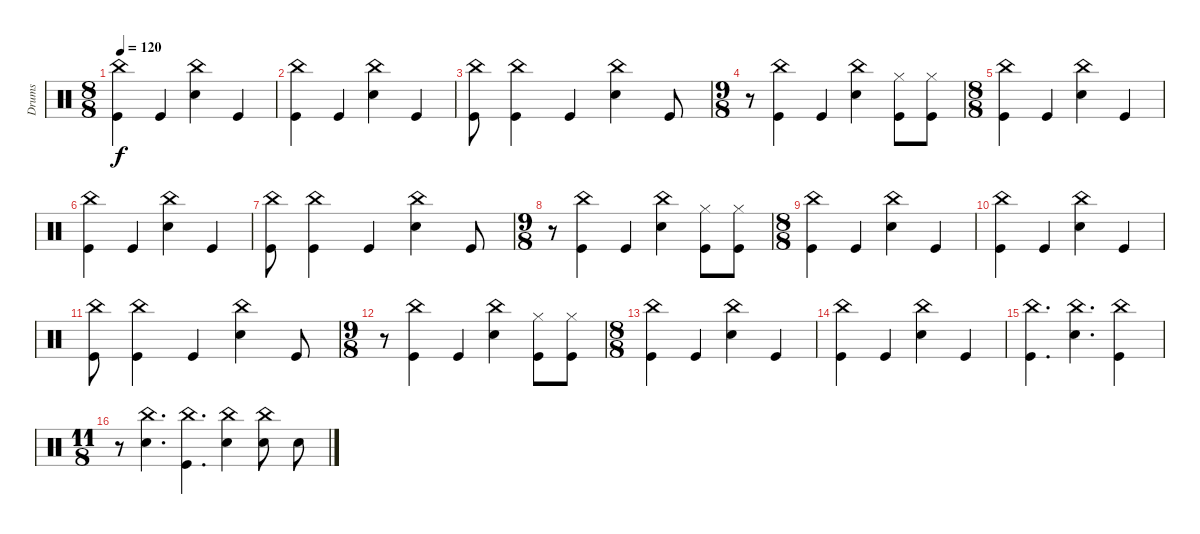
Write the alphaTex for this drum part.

\track ("Drums" "Drums") {instrument percussion}
\staff {score}
\articulation defaults
\ts (8 8)
\tempo 120
\clef neutral
\ks c
("China (hit)" "Kick (hit)").4{dy f} "Kick (hit)".4 ("China (hit)" "Electric Snare (hit)").4 "Kick (hit)".4 |
("China (hit)" "Kick (hit)").4 "Kick (hit)".4 ("China (hit)" "Electric Snare (hit)").4 "Kick (hit)".4 |
("China (hit)" "Kick (hit)").8 ("China (hit)" "Kick (hit)").4 "Kick (hit)".4 ("China (hit)" "Electric Snare (hit)").4 "Kick (hit)".8 |
\ts (9 8)
r.8 ("China (hit)" "Kick (hit)").4 "Kick (hit)".4 ("China (hit)" "Electric Snare (hit)").4 ("Hi-Hat (closed)" "Kick (hit)").8 ("Hi-Hat (closed)" "Kick (hit)").8 |
\ts (8 8)
("China (hit)" "Kick (hit)").4 "Kick (hit)".4 ("China (hit)" "Electric Snare (hit)").4 "Kick (hit)".4 |
("China (hit)" "Kick (hit)").4 "Kick (hit)".4 ("China (hit)" "Electric Snare (hit)").4 "Kick (hit)".4 |
("China (hit)" "Kick (hit)").8 ("China (hit)" "Kick (hit)").4 "Kick (hit)".4 ("China (hit)" "Electric Snare (hit)").4 "Kick (hit)".8 |
\ts (9 8)
r.8 ("China (hit)" "Kick (hit)").4 "Kick (hit)".4 ("China (hit)" "Electric Snare (hit)").4 ("Hi-Hat (closed)" "Kick (hit)").8 ("Hi-Hat (closed)" "Kick (hit)").8 |
\ts (8 8)
("China (hit)" "Kick (hit)").4 "Kick (hit)".4 ("China (hit)" "Electric Snare (hit)").4 "Kick (hit)".4 |
("China (hit)" "Kick (hit)").4 "Kick (hit)".4 ("China (hit)" "Electric Snare (hit)").4 "Kick (hit)".4 |
("China (hit)" "Kick (hit)").8 ("China (hit)" "Kick (hit)").4 "Kick (hit)".4 ("China (hit)" "Electric Snare (hit)").4 "Kick (hit)".8 |
\ts (9 8)
r.8 ("China (hit)" "Kick (hit)").4 "Kick (hit)".4 ("China (hit)" "Electric Snare (hit)").4 ("Hi-Hat (closed)" "Kick (hit)").8 ("Hi-Hat (closed)" "Kick (hit)").8 |
\ts (8 8)
("China (hit)" "Kick (hit)").4 "Kick (hit)".4 ("China (hit)" "Electric Snare (hit)").4 "Kick (hit)".4 |
("China (hit)" "Kick (hit)").4 "Kick (hit)".4 ("China (hit)" "Electric Snare (hit)").4 "Kick (hit)".4 |
("China (hit)" "Kick (hit)").4{d} ("China (hit)" "Electric Snare (hit)").4{d} ("China (hit)" "Kick (hit)").4 |
\ts (11 8)
r.8 ("China (hit)" "Electric Snare (hit)").4{d} ("China (hit)" "Kick (hit)").4{d} ("China (hit)" "Electric Snare (hit)").4 ("China (hit)" "Electric Snare (hit)").8 "Electric Snare (hit)".8
